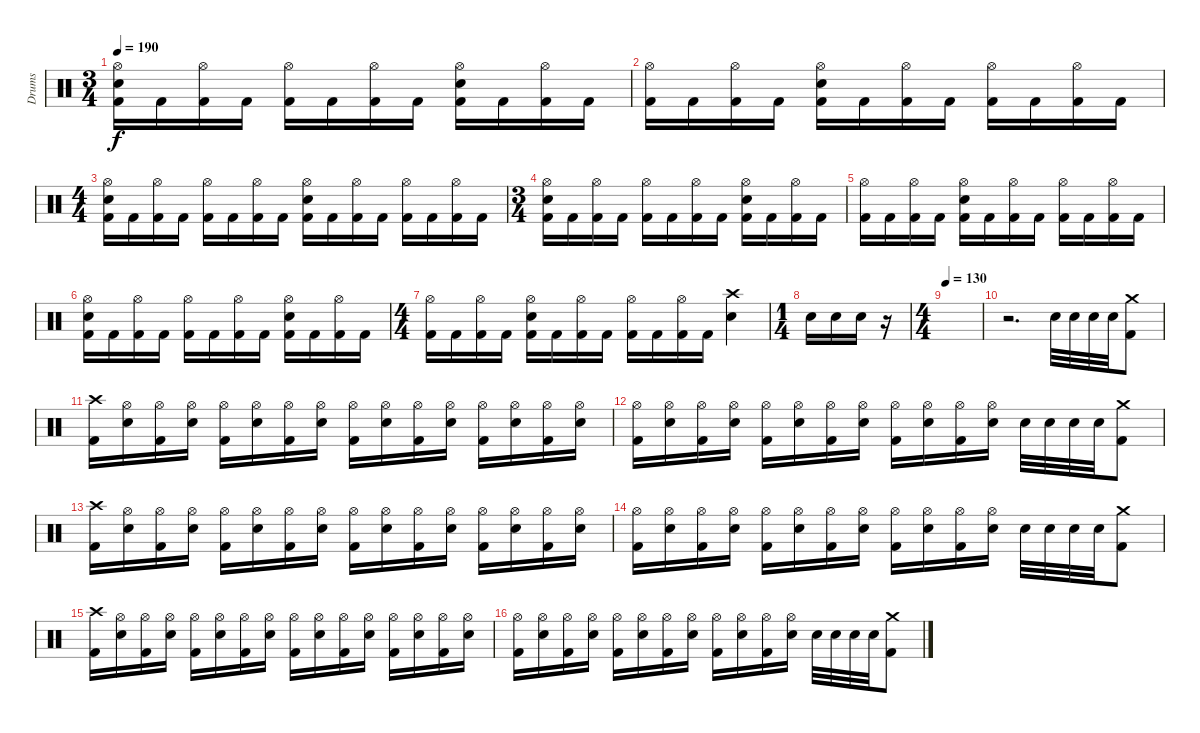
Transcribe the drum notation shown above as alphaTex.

\track ("Drums" "Drums") {instrument percussion}
\staff {score}
\articulation defaults
\ts (3 4)
\tempo 190
\clef neutral
\ks c
("Hi-Hat (open)" "Electric Snare (hit)" "Kick (hit) 2").16{dy f} "Kick (hit) 2".16 ("Hi-Hat (open)" "Kick (hit) 2").16 "Kick (hit) 2".16 ("Hi-Hat (open)" "Kick (hit) 2").16 "Kick (hit) 2".16 ("Hi-Hat (open)" "Kick (hit) 2").16 "Kick (hit) 2".16 ("Hi-Hat (open)" "Electric Snare (hit)" "Kick (hit) 2").16 "Kick (hit) 2".16 ("Hi-Hat (open)" "Kick (hit) 2").16 "Kick (hit) 2".16 |
("Hi-Hat (open)" "Kick (hit) 2").16 "Kick (hit) 2".16 ("Hi-Hat (open)" "Kick (hit) 2").16 "Kick (hit) 2".16 ("Hi-Hat (open)" "Electric Snare (hit)" "Kick (hit) 2").16 "Kick (hit) 2".16 ("Hi-Hat (open)" "Kick (hit) 2").16 "Kick (hit) 2".16 ("Hi-Hat (open)" "Kick (hit) 2").16 "Kick (hit) 2".16 ("Hi-Hat (open)" "Kick (hit) 2").16 "Kick (hit) 2".16 |
\ts (4 4)
("Hi-Hat (open)" "Electric Snare (hit)" "Kick (hit) 2").16 "Kick (hit) 2".16 ("Hi-Hat (open)" "Kick (hit) 2").16 "Kick (hit) 2".16 ("Hi-Hat (open)" "Kick (hit) 2").16 "Kick (hit) 2".16 ("Hi-Hat (open)" "Kick (hit) 2").16 "Kick (hit) 2".16 ("Hi-Hat (open)" "Electric Snare (hit)" "Kick (hit) 2").16 "Kick (hit) 2".16 ("Hi-Hat (open)" "Kick (hit) 2").16 "Kick (hit) 2".16 ("Hi-Hat (open)" "Kick (hit) 2").16 "Kick (hit) 2".16 ("Hi-Hat (open)" "Kick (hit) 2").16 "Kick (hit) 2".16 |
\ts (3 4)
("Hi-Hat (open)" "Electric Snare (hit)" "Kick (hit) 2").16 "Kick (hit) 2".16 ("Hi-Hat (open)" "Kick (hit) 2").16 "Kick (hit) 2".16 ("Hi-Hat (open)" "Kick (hit) 2").16 "Kick (hit) 2".16 ("Hi-Hat (open)" "Kick (hit) 2").16 "Kick (hit) 2".16 ("Hi-Hat (open)" "Electric Snare (hit)" "Kick (hit) 2").16 "Kick (hit) 2".16 ("Hi-Hat (open)" "Kick (hit) 2").16 "Kick (hit) 2".16 |
("Hi-Hat (open)" "Kick (hit) 2").16 "Kick (hit) 2".16 ("Hi-Hat (open)" "Kick (hit) 2").16 "Kick (hit) 2".16 ("Hi-Hat (open)" "Electric Snare (hit)" "Kick (hit) 2").16 "Kick (hit) 2".16 ("Hi-Hat (open)" "Kick (hit) 2").16 "Kick (hit) 2".16 ("Hi-Hat (open)" "Kick (hit) 2").16 "Kick (hit) 2".16 ("Hi-Hat (open)" "Kick (hit) 2").16 "Kick (hit) 2".16 |
("Hi-Hat (open)" "Electric Snare (hit)" "Kick (hit) 2").16 "Kick (hit) 2".16 ("Hi-Hat (open)" "Kick (hit) 2").16 "Kick (hit) 2".16 ("Hi-Hat (open)" "Kick (hit) 2").16 "Kick (hit) 2".16 ("Hi-Hat (open)" "Kick (hit) 2").16 "Kick (hit) 2".16 ("Hi-Hat (open)" "Electric Snare (hit)" "Kick (hit) 2").16 "Kick (hit) 2".16 ("Hi-Hat (open)" "Kick (hit) 2").16 "Kick (hit) 2".16 |
\ts (4 4)
("Hi-Hat (open)" "Kick (hit) 2").16 "Kick (hit) 2".16 ("Hi-Hat (open)" "Kick (hit) 2").16 "Kick (hit) 2".16 ("Hi-Hat (open)" "Electric Snare (hit)" "Kick (hit) 2").16 "Kick (hit) 2".16 ("Hi-Hat (open)" "Kick (hit) 2").16 "Kick (hit) 2".16 ("Hi-Hat (open)" "Kick (hit) 2").16 "Kick (hit) 2".16 ("Hi-Hat (open)" "Kick (hit) 2").16 "Kick (hit) 2".16 ("Crash high (hit)" "Electric Snare (hit)").4 |
\ts (1 4)
"Electric Snare (hit)".16 "Electric Snare (hit)".16 "Electric Snare (hit)".16 r.16 |
\ts (4 4)
\tempo 130
|
r.2{d} "Electric Snare (hit)".32 "Electric Snare (hit)".32 "Electric Snare (hit)".32 "Electric Snare (hit)".32 ("Crash medium (hit)" "Kick (hit) 2").8 |
("Crash high (hit)" "Kick (hit) 2").16 ("Hi-Hat (open)" "Electric Snare (hit)").16 ("Hi-Hat (open)" "Kick (hit) 2").16 ("Hi-Hat (open)" "Electric Snare (hit)").16 ("Hi-Hat (open)" "Kick (hit) 2").16 ("Hi-Hat (open)" "Electric Snare (hit)").16 ("Hi-Hat (open)" "Kick (hit) 2").16 ("Hi-Hat (open)" "Electric Snare (hit)").16 ("Hi-Hat (open)" "Kick (hit) 2").16 ("Hi-Hat (open)" "Electric Snare (hit)").16 ("Hi-Hat (open)" "Kick (hit) 2").16 ("Hi-Hat (open)" "Electric Snare (hit)").16 ("Hi-Hat (open)" "Kick (hit) 2").16 ("Hi-Hat (open)" "Electric Snare (hit)").16 ("Hi-Hat (open)" "Kick (hit) 2").16 ("Hi-Hat (open)" "Electric Snare (hit)").16 |
("Hi-Hat (open)" "Kick (hit) 2").16 ("Hi-Hat (open)" "Electric Snare (hit)").16 ("Hi-Hat (open)" "Kick (hit) 2").16 ("Hi-Hat (open)" "Electric Snare (hit)").16 ("Hi-Hat (open)" "Kick (hit) 2").16 ("Hi-Hat (open)" "Electric Snare (hit)").16 ("Hi-Hat (open)" "Kick (hit) 2").16 ("Hi-Hat (open)" "Electric Snare (hit)").16 ("Hi-Hat (open)" "Kick (hit) 2").16 ("Hi-Hat (open)" "Electric Snare (hit)").16 ("Hi-Hat (open)" "Kick (hit) 2").16 ("Hi-Hat (open)" "Electric Snare (hit)").16 "Electric Snare (hit)".32 "Electric Snare (hit)".32 "Electric Snare (hit)".32 "Electric Snare (hit)".32 ("Crash medium (hit)" "Kick (hit) 2").8 |
("Crash high (hit)" "Kick (hit) 2").16 ("Hi-Hat (open)" "Electric Snare (hit)").16 ("Hi-Hat (open)" "Kick (hit) 2").16 ("Hi-Hat (open)" "Electric Snare (hit)").16 ("Hi-Hat (open)" "Kick (hit) 2").16 ("Hi-Hat (open)" "Electric Snare (hit)").16 ("Hi-Hat (open)" "Kick (hit) 2").16 ("Hi-Hat (open)" "Electric Snare (hit)").16 ("Hi-Hat (open)" "Kick (hit) 2").16 ("Hi-Hat (open)" "Electric Snare (hit)").16 ("Hi-Hat (open)" "Kick (hit) 2").16 ("Hi-Hat (open)" "Electric Snare (hit)").16 ("Hi-Hat (open)" "Kick (hit) 2").16 ("Hi-Hat (open)" "Electric Snare (hit)").16 ("Hi-Hat (open)" "Kick (hit) 2").16 ("Hi-Hat (open)" "Electric Snare (hit)").16 |
("Hi-Hat (open)" "Kick (hit) 2").16 ("Hi-Hat (open)" "Electric Snare (hit)").16 ("Hi-Hat (open)" "Kick (hit) 2").16 ("Hi-Hat (open)" "Electric Snare (hit)").16 ("Hi-Hat (open)" "Kick (hit) 2").16 ("Hi-Hat (open)" "Electric Snare (hit)").16 ("Hi-Hat (open)" "Kick (hit) 2").16 ("Hi-Hat (open)" "Electric Snare (hit)").16 ("Hi-Hat (open)" "Kick (hit) 2").16 ("Hi-Hat (open)" "Electric Snare (hit)").16 ("Hi-Hat (open)" "Kick (hit) 2").16 ("Hi-Hat (open)" "Electric Snare (hit)").16 "Electric Snare (hit)".32 "Electric Snare (hit)".32 "Electric Snare (hit)".32 "Electric Snare (hit)".32 ("Crash medium (hit)" "Kick (hit) 2").8 |
("Crash high (hit)" "Kick (hit) 2").16 ("Hi-Hat (open)" "Electric Snare (hit)").16 ("Hi-Hat (open)" "Kick (hit) 2").16 ("Hi-Hat (open)" "Electric Snare (hit)").16 ("Hi-Hat (open)" "Kick (hit) 2").16 ("Hi-Hat (open)" "Electric Snare (hit)").16 ("Hi-Hat (open)" "Kick (hit) 2").16 ("Hi-Hat (open)" "Electric Snare (hit)").16 ("Hi-Hat (open)" "Kick (hit) 2").16 ("Hi-Hat (open)" "Electric Snare (hit)").16 ("Hi-Hat (open)" "Kick (hit) 2").16 ("Hi-Hat (open)" "Electric Snare (hit)").16 ("Hi-Hat (open)" "Kick (hit) 2").16 ("Hi-Hat (open)" "Electric Snare (hit)").16 ("Hi-Hat (open)" "Kick (hit) 2").16 ("Hi-Hat (open)" "Electric Snare (hit)").16 |
("Hi-Hat (open)" "Kick (hit) 2").16 ("Hi-Hat (open)" "Electric Snare (hit)").16 ("Hi-Hat (open)" "Kick (hit) 2").16 ("Hi-Hat (open)" "Electric Snare (hit)").16 ("Hi-Hat (open)" "Kick (hit) 2").16 ("Hi-Hat (open)" "Electric Snare (hit)").16 ("Hi-Hat (open)" "Kick (hit) 2").16 ("Hi-Hat (open)" "Electric Snare (hit)").16 ("Hi-Hat (open)" "Kick (hit) 2").16 ("Hi-Hat (open)" "Electric Snare (hit)").16 ("Hi-Hat (open)" "Kick (hit) 2").16 ("Hi-Hat (open)" "Electric Snare (hit)").16 "Electric Snare (hit)".32 "Electric Snare (hit)".32 "Electric Snare (hit)".32 "Electric Snare (hit)".32 ("Crash medium (hit)" "Kick (hit) 2").8
